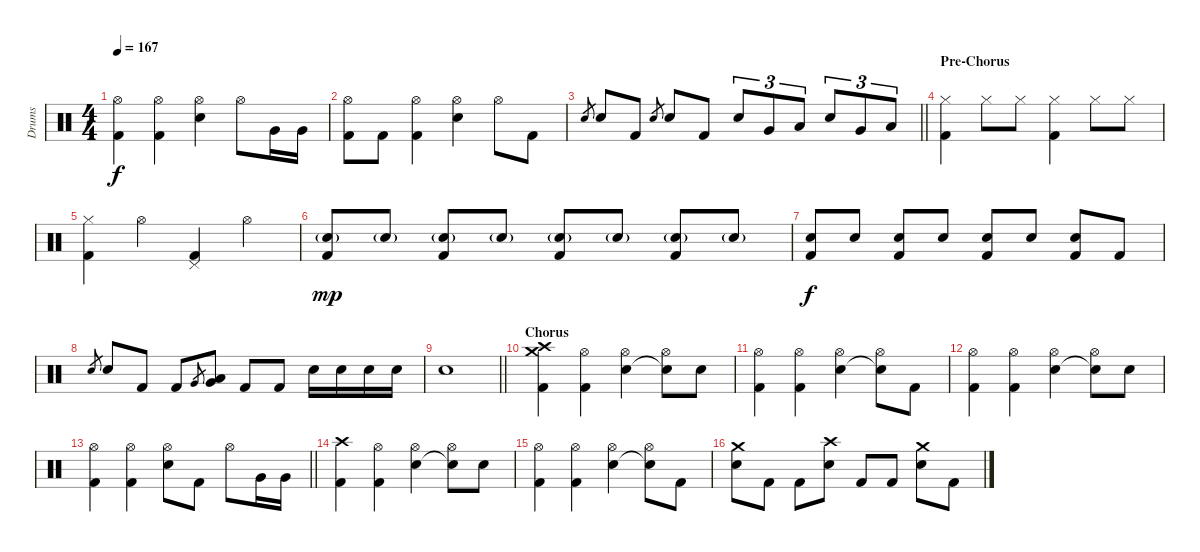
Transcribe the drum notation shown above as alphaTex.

\track ("Drums" "Drums") {instrument percussion}
\staff {score}
\articulation defaults
\ts (4 4)
\tempo 167
\clef neutral
\ks c
("Kick (hit) 2" "Hi-Hat (open)").4{dy f} ("Kick (hit) 2" "Hi-Hat (open)").4 ("Electric Snare (hit)" "Hi-Hat (open)").4 "Hi-Hat (open)".8 "Very Low Tom (hit)".16 "Very Low Tom (hit)".16 |
("Kick (hit) 2" "Hi-Hat (open)").8 "Kick (hit) 2".8 ("Kick (hit) 2" "Hi-Hat (open)").4 ("Electric Snare (hit)" "Hi-Hat (open)").4 "Hi-Hat (open)".8 "Kick (hit) 2".8 |
\barLineRight lightlight "Electric Snare (hit)".8{gr} "Electric Snare (hit)".8 "Kick (hit) 2".8 "Electric Snare (hit)".8{gr} "Electric Snare (hit)".8 "Kick (hit) 2".8 "Electric Snare (hit)".8{tu (3 2)} "Very Low Tom (hit)".8{tu (3 2)} "Low Floor Tom (hit)".8{tu (3 2)} "Electric Snare (hit)".8{tu (3 2)} "Very Low Tom (hit)".8{tu (3 2)} "Low Floor Tom (hit)".8{tu (3 2)}
|
\section ("" "Pre-Chorus")
("Kick (hit) 2" "Hi-Hat (closed)").4 "Hi-Hat (closed)".8 "Hi-Hat (closed)".8 ("Kick (hit) 2" "Hi-Hat (closed)").4 "Hi-Hat (closed)".8 "Hi-Hat (closed)".8 |
("Kick (hit) 2" "Hi-Hat (closed)").4 "Hi-Hat (open)".4 ("Kick (hit) 2" "Pedal Hi-Hat (hit)").4 "Hi-Hat (open)".4 |
("Kick (hit) 2" "Electric Snare (hit)"{g}).8{dy mp} "Electric Snare (hit)"{g}.8 ("Kick (hit) 2" "Electric Snare (hit)"{g}).8 "Electric Snare (hit)"{g}.8 ("Kick (hit) 2" "Electric Snare (hit)"{g}).8 "Electric Snare (hit)"{g}.8 ("Kick (hit) 2" "Electric Snare (hit)"{g}).8 "Electric Snare (hit)"{g}.8 |
("Kick (hit) 2" "Electric Snare (hit)").8{dy f} "Electric Snare (hit)".8 ("Kick (hit) 2" "Electric Snare (hit)").8 "Electric Snare (hit)".8 ("Kick (hit) 2" "Electric Snare (hit)").8 "Electric Snare (hit)".8 ("Kick (hit) 2" "Electric Snare (hit)").8 "Kick (hit) 2".8 |
"Electric Snare (hit)".8{gr} "Electric Snare (hit)".8 "Kick (hit) 2".8 "Kick (hit) 2".8 "Very Low Tom (hit)".8{gr} ("Very Low Tom (hit)" "Low Floor Tom (hit)").8 "Kick (hit) 2".8 "Kick (hit) 2".8 "Electric Snare (hit)".16 "Electric Snare (hit)".16 "Electric Snare (hit)".16 "Electric Snare (hit)".16 |
\barLineRight lightlight "Electric Snare (hit)".1
|
\section ("" "Chorus")
("Kick (hit) 2" "Crash high (hit)" "Crash medium (hit)").4 ("Kick (hit) 2" "Hi-Hat (open)").4 ("Electric Snare (hit)" "Hi-Hat (open)").4 ("Snare (hit)"{t} "Hi-Hat (open)").8 "Electric Snare (hit)".8 |
("Kick (hit) 2" "Hi-Hat (open)").4 ("Kick (hit) 2" "Hi-Hat (open)").4 ("Electric Snare (hit)" "Hi-Hat (open)").4 ("Snare (hit)"{t} "Hi-Hat (open)").8 "Kick (hit) 2".8 |
("Kick (hit) 2" "Hi-Hat (open)").4 ("Kick (hit) 2" "Hi-Hat (open)").4 ("Electric Snare (hit)" "Hi-Hat (open)").4 ("Snare (hit)"{t} "Hi-Hat (open)").8 "Electric Snare (hit)".8 |
\barLineRight lightlight
("Kick (hit) 2" "Hi-Hat (open)").4 ("Kick (hit) 2" "Hi-Hat (open)").4 ("Electric Snare (hit)" "Hi-Hat (open)").8 "Kick (hit) 2".8 "Hi-Hat (open)".8 "Very Low Tom (hit)".16 "Very Low Tom (hit)".16 |
("Kick (hit) 2" "Crash high (hit)").4 ("Kick (hit) 2" "Hi-Hat (open)").4 ("Electric Snare (hit)" "Hi-Hat (open)").4 ("Snare (hit)"{t} "Hi-Hat (open)").8 "Electric Snare (hit)".8 |
("Kick (hit) 2" "Hi-Hat (open)").4 ("Kick (hit) 2" "Hi-Hat (open)").4 ("Electric Snare (hit)" "Hi-Hat (open)").4 ("Snare (hit)"{t} "Hi-Hat (open)").8 "Kick (hit) 2".8 |
("Electric Snare (hit)" "Crash medium (hit)").8 "Kick (hit) 2".8 "Kick (hit) 2".8 ("Electric Snare (hit)" "Crash high (hit)").8 "Kick (hit) 2".8 "Kick (hit) 2".8 ("Electric Snare (hit)" "Crash medium (hit)").8 "Kick (hit) 2".8
